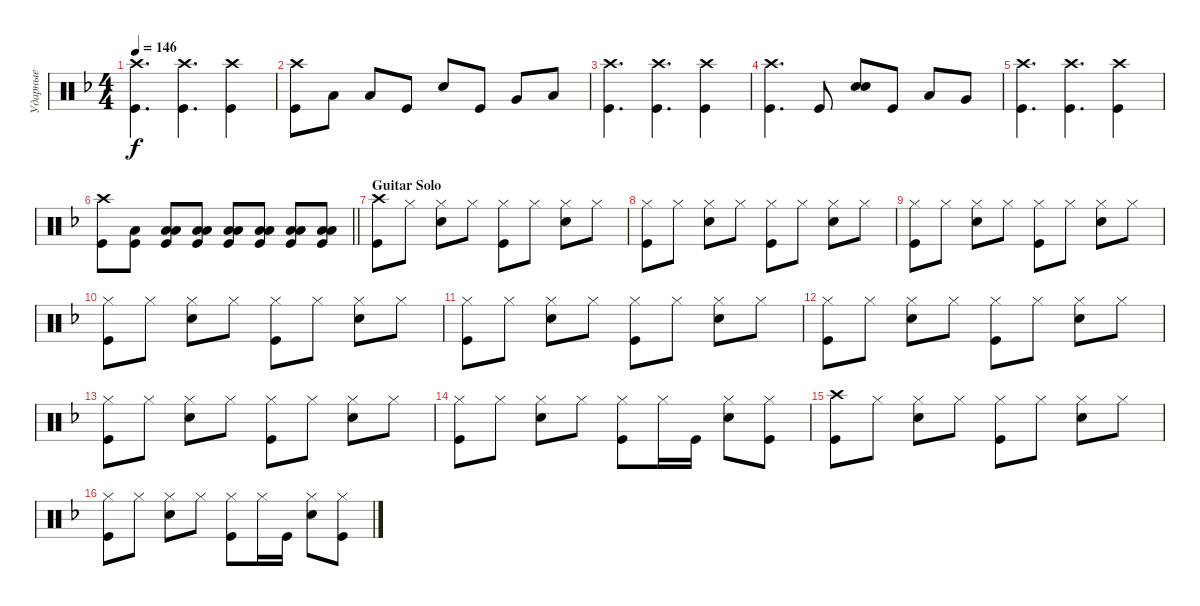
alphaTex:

\track ("Ударные" "Ударные") {instrument percussion}
\staff {score}
\articulation defaults
\ts (4 4)
\tempo 146
\clef neutral
\ks dminor
("Kick (hit)" "Crash high (hit)").4{d dy f} ("Kick (hit)" "Crash high (hit)").4{d} ("Kick (hit)" "Crash high (hit)").4 |
("Kick (hit)" "Crash high (hit)").8 "Low Tom (hit)".8 "Low Tom (hit)".8 "Kick (hit)".8 "Snare (hit) 2".8 "Kick (hit)".8 "Very Low Tom (hit)".8 "Low Floor Tom (hit)".8 |
("Kick (hit)" "Crash high (hit)").4{d} ("Kick (hit)" "Crash high (hit)").4{d} ("Kick (hit)" "Crash high (hit)").4 |
("Kick (hit)" "Crash high (hit)").4{d} "Kick (hit)".8 ("Snare (hit) 2" "Snare (hit) 2").8{bd 240} "Kick (hit)".8 "Low Tom (hit)".8 "Very Low Tom (hit)".8 |
("Kick (hit)" "Crash high (hit)").4{d} ("Kick (hit)" "Crash high (hit)").4{d} ("Kick (hit)" "Crash high (hit)").4 |
\barLineRight lightlight
("Kick (hit)" "Crash high (hit)").8 ("Kick (hit)" "Low Floor Tom (hit)").8 ("Kick (hit)" "Low Floor Tom (hit)" "Low Floor Tom (hit)").8{bd 60} ("Kick (hit)" "Low Floor Tom (hit)" "Low Floor Tom (hit)").8{bd 60} ("Kick (hit)" "Low Floor Tom (hit)" "Low Floor Tom (hit)").8{bd 60} ("Kick (hit)" "Low Floor Tom (hit)" "Low Floor Tom (hit)").8{bd 60} ("Kick (hit)" "Low Floor Tom (hit)" "Low Floor Tom (hit)").8{bd 60} ("Kick (hit)" "Low Floor Tom (hit)" "Low Floor Tom (hit)").8{bd 60} |
\section ("" "Guitar Solo")
("Kick (hit)" "Crash high (hit)").8 "Hi-Hat (closed)".8 ("Hi-Hat (closed)" "Snare (hit) 2").8 "Hi-Hat (closed)".8 ("Hi-Hat (closed)" "Kick (hit)").8 "Hi-Hat (closed)".8 ("Hi-Hat (closed)" "Snare (hit) 2").8 "Hi-Hat (closed)".8 |
("Kick (hit)" "Hi-Hat (closed)").8 "Hi-Hat (closed)".8 ("Hi-Hat (closed)" "Snare (hit) 2").8 "Hi-Hat (closed)".8 ("Hi-Hat (closed)" "Kick (hit)").8 "Hi-Hat (closed)".8 ("Hi-Hat (closed)" "Snare (hit) 2").8 "Hi-Hat (closed)".8 |
("Kick (hit)" "Hi-Hat (closed)").8 "Hi-Hat (closed)".8 ("Hi-Hat (closed)" "Snare (hit) 2").8 "Hi-Hat (closed)".8 ("Hi-Hat (closed)" "Kick (hit)").8 "Hi-Hat (closed)".8 ("Hi-Hat (closed)" "Snare (hit) 2").8 "Hi-Hat (closed)".8 |
("Kick (hit)" "Hi-Hat (closed)").8 "Hi-Hat (closed)".8 ("Hi-Hat (closed)" "Snare (hit) 2").8 "Hi-Hat (closed)".8 ("Hi-Hat (closed)" "Kick (hit)").8 "Hi-Hat (closed)".8 ("Hi-Hat (closed)" "Snare (hit) 2").8 "Hi-Hat (closed)".8 |
("Kick (hit)" "Hi-Hat (closed)").8 "Hi-Hat (closed)".8 ("Hi-Hat (closed)" "Snare (hit) 2").8 "Hi-Hat (closed)".8 ("Hi-Hat (closed)" "Kick (hit)").8 "Hi-Hat (closed)".8 ("Hi-Hat (closed)" "Snare (hit) 2").8 "Hi-Hat (closed)".8 |
("Kick (hit)" "Hi-Hat (closed)").8 "Hi-Hat (closed)".8 ("Hi-Hat (closed)" "Snare (hit) 2").8 "Hi-Hat (closed)".8 ("Hi-Hat (closed)" "Kick (hit)").8 "Hi-Hat (closed)".8 ("Hi-Hat (closed)" "Snare (hit) 2").8 "Hi-Hat (closed)".8 |
("Kick (hit)" "Hi-Hat (closed)").8 "Hi-Hat (closed)".8 ("Hi-Hat (closed)" "Snare (hit) 2").8 "Hi-Hat (closed)".8 ("Hi-Hat (closed)" "Kick (hit)").8 "Hi-Hat (closed)".8 ("Hi-Hat (closed)" "Snare (hit) 2").8 "Hi-Hat (closed)".8 |
("Kick (hit)" "Hi-Hat (closed)").8 "Hi-Hat (closed)".8 ("Hi-Hat (closed)" "Snare (hit) 2").8 "Hi-Hat (closed)".8 ("Hi-Hat (closed)" "Kick (hit)").8 "Hi-Hat (closed)".16 "Kick (hit)".16 ("Hi-Hat (closed)" "Snare (hit) 2").8 ("Hi-Hat (closed)" "Kick (hit)").8 |
("Kick (hit)" "Crash high (hit)").8 "Hi-Hat (closed)".8 ("Hi-Hat (closed)" "Snare (hit) 2").8 "Hi-Hat (closed)".8 ("Hi-Hat (closed)" "Kick (hit)").8 "Hi-Hat (closed)".8 ("Hi-Hat (closed)" "Snare (hit) 2").8 "Hi-Hat (closed)".8 |
("Kick (hit)" "Hi-Hat (closed)").8 "Hi-Hat (closed)".8 ("Hi-Hat (closed)" "Snare (hit) 2").8 "Hi-Hat (closed)".8 ("Hi-Hat (closed)" "Kick (hit)").8 "Hi-Hat (closed)".16 "Kick (hit)".16 ("Hi-Hat (closed)" "Snare (hit) 2").8 ("Hi-Hat (closed)" "Kick (hit)").8
